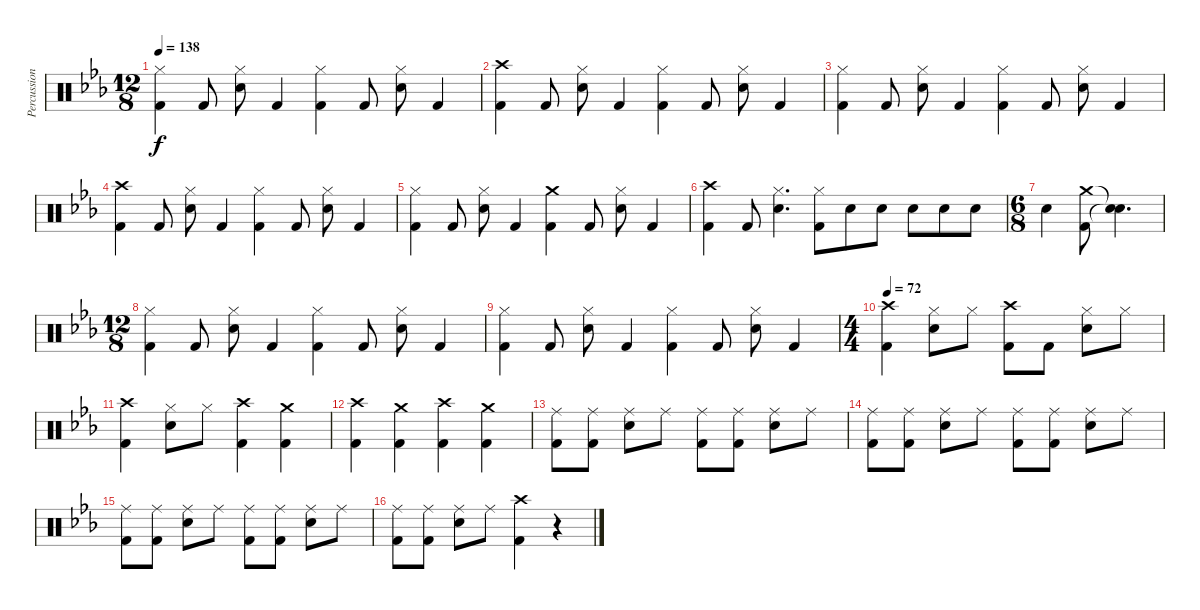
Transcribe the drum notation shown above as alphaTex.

\track ("Percussion" "Percussion") {instrument percussion}
\staff {score}
\articulation defaults
\ts (12 8)
\tempo 138
\clef neutral
\ks eb
("Hi-Hat (closed)" "Kick (hit) 2").4{dy f} "Kick (hit) 2".8 ("Hi-Hat (closed)" "Snare (hit) 2").8 "Kick (hit) 2".4 ("Hi-Hat (closed)" "Kick (hit) 2").4 "Kick (hit) 2".8 ("Hi-Hat (closed)" "Snare (hit) 2").8 "Kick (hit) 2".4 |
("Crash high (hit)" "Kick (hit) 2").4 "Kick (hit) 2".8 ("Hi-Hat (closed)" "Snare (hit) 2").8 "Kick (hit) 2".4 ("Hi-Hat (closed)" "Kick (hit) 2").4 "Kick (hit) 2".8 ("Hi-Hat (closed)" "Snare (hit) 2").8 "Kick (hit) 2".4 |
("Hi-Hat (closed)" "Kick (hit) 2").4 "Kick (hit) 2".8 ("Hi-Hat (closed)" "Snare (hit) 2").8 "Kick (hit) 2".4 ("Hi-Hat (closed)" "Kick (hit) 2").4 "Kick (hit) 2".8 ("Hi-Hat (closed)" "Snare (hit) 2").8 "Kick (hit) 2".4 |
("Crash high (hit)" "Kick (hit) 2").4 "Kick (hit) 2".8 ("Hi-Hat (closed)" "Snare (hit) 2").8 "Kick (hit) 2".4 ("Hi-Hat (closed)" "Kick (hit) 2").4 "Kick (hit) 2".8 ("Hi-Hat (closed)" "Snare (hit) 2").8 "Kick (hit) 2".4 |
("Hi-Hat (closed)" "Kick (hit) 2").4 "Kick (hit) 2".8 ("Hi-Hat (closed)" "Snare (hit) 2").8 "Kick (hit) 2".4 ("Crash medium (hit)" "Kick (hit) 2").4 "Kick (hit) 2".8 ("Hi-Hat (closed)" "Snare (hit) 2").8 "Kick (hit) 2".4 |
("Crash high (hit)" "Kick (hit) 2").4 "Kick (hit) 2".8 ("Hi-Hat (closed)" "Snare (hit) 2").4{d} ("Hi-Hat (closed)" "Kick (hit) 2").8 "Snare (hit) 2".8 "Snare (hit) 2".8 "Snare (hit) 2".8 "Snare (hit) 2".8 "Snare (hit) 2".8 |
\ts (6 8)
"Snare (hit) 2".4 ("Crash medium (hit)" "Kick (hit) 2").8 ("Snare (hit)"{t} "Snare (hit)"{t}).4{d} |
\ts (12 8)
("Hi-Hat (closed)" "Kick (hit) 2").4 "Kick (hit) 2".8 ("Hi-Hat (closed)" "Snare (hit) 2").8 "Kick (hit) 2".4 ("Hi-Hat (closed)" "Kick (hit) 2").4 "Kick (hit) 2".8 ("Hi-Hat (closed)" "Snare (hit) 2").8 "Kick (hit) 2".4 |
("Hi-Hat (closed)" "Kick (hit) 2").4 "Kick (hit) 2".8 ("Hi-Hat (closed)" "Snare (hit) 2").8 "Kick (hit) 2".4 ("Hi-Hat (closed)" "Kick (hit) 2").4 "Kick (hit) 2".8 ("Hi-Hat (closed)" "Snare (hit) 2").8 "Kick (hit) 2".4 |
\ts (4 4)
\tempo 72
("Crash high (hit)" "Kick (hit) 2").4 ("Hi-Hat (closed)" "Snare (hit) 2").8 "Hi-Hat (closed)".8 ("Crash high (hit)" "Kick (hit) 2").8 "Kick (hit) 2".8 ("Hi-Hat (closed)" "Snare (hit) 2").8 "Hi-Hat (closed)".8 |
("Crash high (hit)" "Kick (hit) 2").4 ("Hi-Hat (closed)" "Snare (hit) 2").8 "Hi-Hat (closed)".8 ("Crash high (hit)" "Kick (hit) 2").4 ("Crash medium (hit)" "Kick (hit) 2").4 |
("Crash high (hit)" "Kick (hit) 2").4 ("Crash medium (hit)" "Kick (hit) 2").4 ("Crash high (hit)" "Kick (hit) 2").4 ("Crash medium (hit)" "Kick (hit) 2").4 |
("Ride (middle)" "Kick (hit) 2").8 ("Ride (middle)" "Kick (hit) 2").8 ("Ride (middle)" "Snare (hit) 2").8 "Ride (middle)".8 ("Ride (middle)" "Kick (hit) 2").8 ("Ride (middle)" "Kick (hit) 2").8 ("Ride (middle)" "Snare (hit) 2").8 "Ride (middle)".8 |
("Ride (middle)" "Kick (hit) 2").8 ("Ride (middle)" "Kick (hit) 2").8 ("Ride (middle)" "Snare (hit) 2").8 "Ride (middle)".8 ("Ride (middle)" "Kick (hit) 2").8 ("Ride (middle)" "Kick (hit) 2").8 ("Ride (middle)" "Snare (hit) 2").8 "Ride (middle)".8 |
("Ride (middle)" "Kick (hit) 2").8 ("Ride (middle)" "Kick (hit) 2").8 ("Ride (middle)" "Snare (hit) 2").8 "Ride (middle)".8 ("Ride (middle)" "Kick (hit) 2").8 ("Ride (middle)" "Kick (hit) 2").8 ("Ride (middle)" "Snare (hit) 2").8 "Ride (middle)".8 |
("Ride (middle)" "Kick (hit) 2").8 ("Ride (middle)" "Kick (hit) 2").8 ("Ride (middle)" "Snare (hit) 2").8 "Ride (middle)".8 ("Crash high (hit)" "Kick (hit) 2").4 r.4
